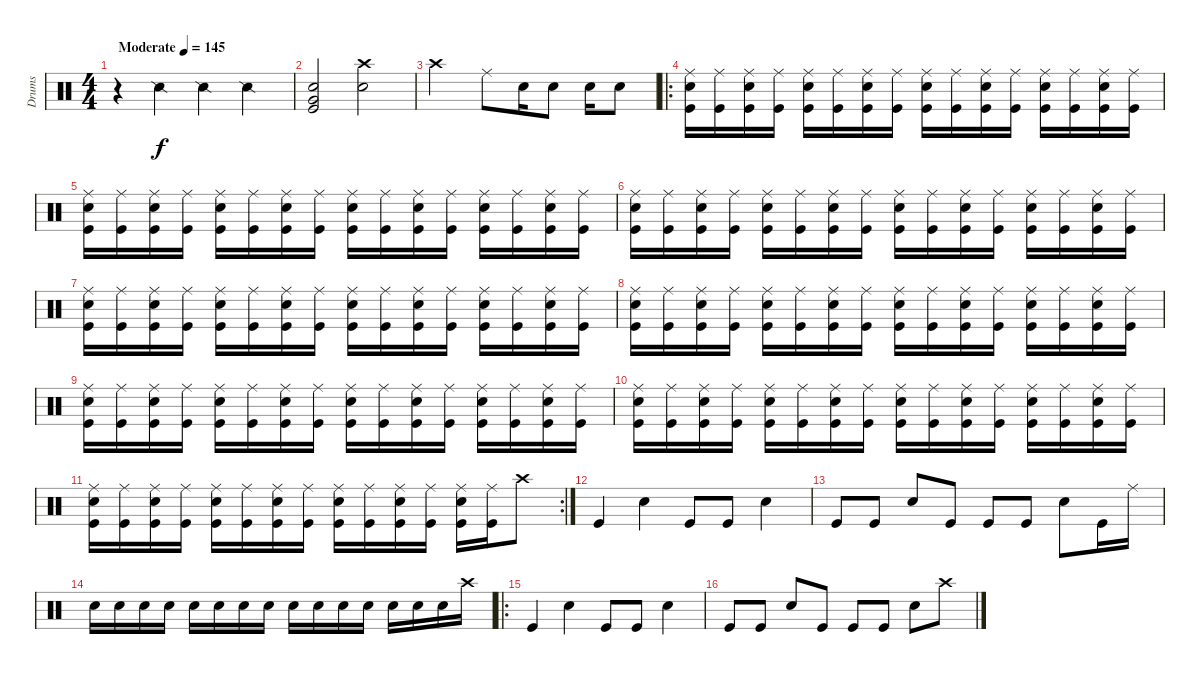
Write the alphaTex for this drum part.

\track ("Drums" "Drums") {instrument percussion}
\staff
\articulation defaults
\ts (4 4)
\tempo (145 "Moderate")
\clef neutral
\ks c
r.4{dy f} "Snare (side stick) 2".4 "Snare (side stick) 2".4 "Snare (side stick) 2".4 |
("Kick (hit)" "Very Low Tom (hit)" "Electric Snare (hit)").2 ("Electric Snare (hit)" "Crash high (hit)").2 |
"Crash high (hit)".2 "Ride (middle)".8 "Electric Snare (hit)".16 "Electric Snare (hit)".8 "Electric Snare (hit)".16 "Electric Snare (hit)".8 |
\ro
("Kick (hit)" "Electric Snare (hit)" "Ride (middle)").16 ("Kick (hit)" "Ride (middle)").16 ("Kick (hit)" "Electric Snare (hit)" "Ride (middle)").16 ("Kick (hit)" "Ride (middle)").16 ("Kick (hit)" "Electric Snare (hit)" "Ride (middle)").16 ("Kick (hit)" "Ride (middle)").16 ("Kick (hit)" "Electric Snare (hit)" "Ride (middle)").16 ("Kick (hit)" "Ride (middle)").16 ("Kick (hit)" "Electric Snare (hit)" "Ride (middle)").16 ("Kick (hit)" "Ride (middle)").16 ("Kick (hit)" "Electric Snare (hit)" "Ride (middle)").16 ("Kick (hit)" "Ride (middle)").16 ("Kick (hit)" "Electric Snare (hit)" "Ride (middle)").16 ("Kick (hit)" "Ride (middle)").16 ("Kick (hit)" "Electric Snare (hit)" "Ride (middle)").16 ("Kick (hit)" "Ride (middle)").16 |
("Kick (hit)" "Electric Snare (hit)" "Ride (middle)").16 ("Kick (hit)" "Ride (middle)").16 ("Kick (hit)" "Electric Snare (hit)" "Ride (middle)").16 ("Kick (hit)" "Ride (middle)").16 ("Kick (hit)" "Electric Snare (hit)" "Ride (middle)").16 ("Kick (hit)" "Ride (middle)").16 ("Kick (hit)" "Electric Snare (hit)" "Ride (middle)").16 ("Kick (hit)" "Ride (middle)").16 ("Kick (hit)" "Electric Snare (hit)" "Ride (middle)").16 ("Kick (hit)" "Ride (middle)").16 ("Kick (hit)" "Electric Snare (hit)" "Ride (middle)").16 ("Kick (hit)" "Ride (middle)").16 ("Kick (hit)" "Electric Snare (hit)" "Ride (middle)").16 ("Kick (hit)" "Ride (middle)").16 ("Kick (hit)" "Electric Snare (hit)" "Ride (middle)").16 ("Kick (hit)" "Ride (middle)").16 |
("Kick (hit)" "Electric Snare (hit)" "Ride (middle)").16 ("Kick (hit)" "Ride (middle)").16 ("Kick (hit)" "Electric Snare (hit)" "Ride (middle)").16 ("Kick (hit)" "Ride (middle)").16 ("Kick (hit)" "Electric Snare (hit)" "Ride (middle)").16 ("Kick (hit)" "Ride (middle)").16 ("Kick (hit)" "Electric Snare (hit)" "Ride (middle)").16 ("Kick (hit)" "Ride (middle)").16 ("Kick (hit)" "Electric Snare (hit)" "Ride (middle)").16 ("Kick (hit)" "Ride (middle)").16 ("Kick (hit)" "Electric Snare (hit)" "Ride (middle)").16 ("Kick (hit)" "Ride (middle)").16 ("Kick (hit)" "Electric Snare (hit)" "Ride (middle)").16 ("Kick (hit)" "Ride (middle)").16 ("Kick (hit)" "Electric Snare (hit)" "Ride (middle)").16 ("Kick (hit)" "Ride (middle)").16 |
("Kick (hit)" "Electric Snare (hit)" "Ride (middle)").16 ("Kick (hit)" "Ride (middle)").16 ("Kick (hit)" "Electric Snare (hit)" "Ride (middle)").16 ("Kick (hit)" "Ride (middle)").16 ("Kick (hit)" "Electric Snare (hit)" "Ride (middle)").16 ("Kick (hit)" "Ride (middle)").16 ("Kick (hit)" "Electric Snare (hit)" "Ride (middle)").16 ("Kick (hit)" "Ride (middle)").16 ("Kick (hit)" "Electric Snare (hit)" "Ride (middle)").16 ("Kick (hit)" "Ride (middle)").16 ("Kick (hit)" "Electric Snare (hit)" "Ride (middle)").16 ("Kick (hit)" "Ride (middle)").16 ("Kick (hit)" "Electric Snare (hit)" "Ride (middle)").16 ("Kick (hit)" "Ride (middle)").16 ("Kick (hit)" "Electric Snare (hit)" "Ride (middle)").16 ("Kick (hit)" "Ride (middle)").16 |
("Kick (hit)" "Electric Snare (hit)" "Ride (middle)").16 ("Kick (hit)" "Ride (middle)").16 ("Kick (hit)" "Electric Snare (hit)" "Ride (middle)").16 ("Kick (hit)" "Ride (middle)").16 ("Kick (hit)" "Electric Snare (hit)" "Ride (middle)").16 ("Kick (hit)" "Ride (middle)").16 ("Kick (hit)" "Electric Snare (hit)" "Ride (middle)").16 ("Kick (hit)" "Ride (middle)").16 ("Kick (hit)" "Electric Snare (hit)" "Ride (middle)").16 ("Kick (hit)" "Ride (middle)").16 ("Kick (hit)" "Electric Snare (hit)" "Ride (middle)").16 ("Kick (hit)" "Ride (middle)").16 ("Kick (hit)" "Electric Snare (hit)" "Ride (middle)").16 ("Kick (hit)" "Ride (middle)").16 ("Kick (hit)" "Electric Snare (hit)" "Ride (middle)").16 ("Kick (hit)" "Ride (middle)").16 |
("Kick (hit)" "Electric Snare (hit)" "Ride (middle)").16 ("Kick (hit)" "Ride (middle)").16 ("Kick (hit)" "Electric Snare (hit)" "Ride (middle)").16 ("Kick (hit)" "Ride (middle)").16 ("Kick (hit)" "Electric Snare (hit)" "Ride (middle)").16 ("Kick (hit)" "Ride (middle)").16 ("Kick (hit)" "Electric Snare (hit)" "Ride (middle)").16 ("Kick (hit)" "Ride (middle)").16 ("Kick (hit)" "Electric Snare (hit)" "Ride (middle)").16 ("Kick (hit)" "Ride (middle)").16 ("Kick (hit)" "Electric Snare (hit)" "Ride (middle)").16 ("Kick (hit)" "Ride (middle)").16 ("Kick (hit)" "Electric Snare (hit)" "Ride (middle)").16 ("Kick (hit)" "Ride (middle)").16 ("Kick (hit)" "Electric Snare (hit)" "Ride (middle)").16 ("Kick (hit)" "Ride (middle)").16 |
("Kick (hit)" "Electric Snare (hit)" "Ride (middle)").16 ("Kick (hit)" "Ride (middle)").16 ("Kick (hit)" "Electric Snare (hit)" "Ride (middle)").16 ("Kick (hit)" "Ride (middle)").16 ("Kick (hit)" "Electric Snare (hit)" "Ride (middle)").16 ("Kick (hit)" "Ride (middle)").16 ("Kick (hit)" "Electric Snare (hit)" "Ride (middle)").16 ("Kick (hit)" "Ride (middle)").16 ("Kick (hit)" "Electric Snare (hit)" "Ride (middle)").16 ("Kick (hit)" "Ride (middle)").16 ("Kick (hit)" "Electric Snare (hit)" "Ride (middle)").16 ("Kick (hit)" "Ride (middle)").16 ("Kick (hit)" "Electric Snare (hit)" "Ride (middle)").16 ("Kick (hit)" "Ride (middle)").16 ("Kick (hit)" "Electric Snare (hit)" "Ride (middle)").16 ("Kick (hit)" "Ride (middle)").16 |
\rc 2
("Kick (hit)" "Electric Snare (hit)" "Ride (middle)").16 ("Kick (hit)" "Ride (middle)").16 ("Kick (hit)" "Electric Snare (hit)" "Ride (middle)").16 ("Kick (hit)" "Ride (middle)").16 ("Kick (hit)" "Electric Snare (hit)" "Ride (middle)").16 ("Kick (hit)" "Ride (middle)").16 ("Kick (hit)" "Electric Snare (hit)" "Ride (middle)").16 ("Kick (hit)" "Ride (middle)").16 ("Kick (hit)" "Electric Snare (hit)" "Ride (middle)").16 ("Kick (hit)" "Ride (middle)").16 ("Kick (hit)" "Electric Snare (hit)" "Ride (middle)").16 ("Kick (hit)" "Ride (middle)").16 ("Kick (hit)" "Electric Snare (hit)" "Ride (middle)").16 ("Kick (hit)" "Ride (middle)").16 "Crash high (hit)".8 |
"Kick (hit)".4 "Electric Snare (hit)".4 "Kick (hit)".8 "Kick (hit)".8 "Electric Snare (hit)".4 |
"Kick (hit)".8 "Kick (hit)".8 "Electric Snare (hit)".8 "Kick (hit)".8 "Kick (hit)".8 "Kick (hit)".8 "Electric Snare (hit)".8 "Kick (hit)".16 "Ride (middle)".16 |
"Electric Snare (hit)".16 "Electric Snare (hit)".16 "Electric Snare (hit)".16 "Electric Snare (hit)".16 "Electric Snare (hit)".16 "Electric Snare (hit)".16 "Electric Snare (hit)".16 "Electric Snare (hit)".16 "Electric Snare (hit)".16 "Electric Snare (hit)".16 "Electric Snare (hit)".16 "Electric Snare (hit)".16 "Electric Snare (hit)".16 "Electric Snare (hit)".16 "Electric Snare (hit)".16 "Crash high (hit)".16 |
\ro "Kick (hit)".4 "Electric Snare (hit)".4 "Kick (hit)".8 "Kick (hit)".8 "Electric Snare (hit)".4
|
"Kick (hit)".8 "Kick (hit)".8 "Electric Snare (hit)".8 "Kick (hit)".8 "Kick (hit)".8 "Kick (hit)".8 "Electric Snare (hit)".8 "Crash high (hit)".8
